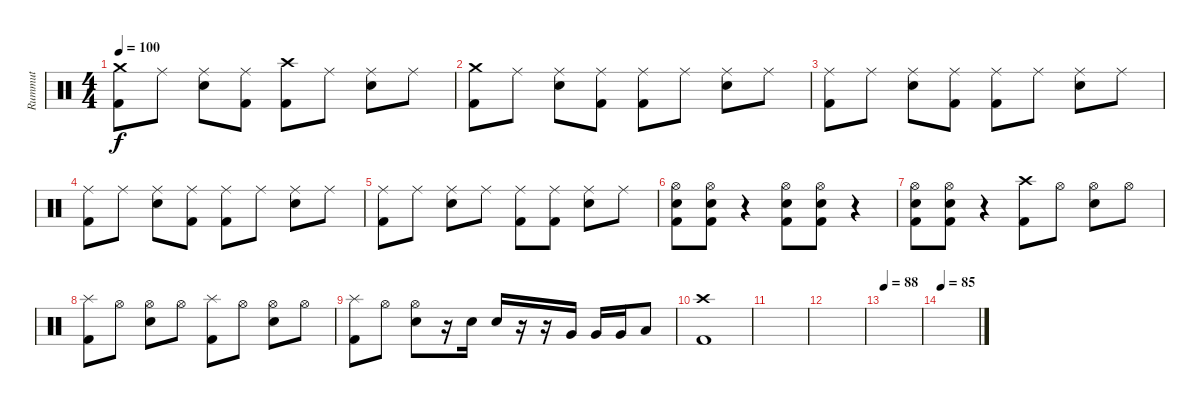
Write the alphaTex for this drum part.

\track ("Rummut" "Rummut") {instrument percussion}
\staff {score}
\articulation defaults
\ts (4 4)
\tempo 100
\clef neutral
\ks c
("Crash medium (hit)" "Kick (hit) 2").8{dy f} "Ride (middle)".8 ("Ride (middle)" "Snare (hit) 2").8 ("Ride (middle)" "Kick (hit) 2").8 ("Crash high (hit)" "Kick (hit) 2").8 "Ride (middle)".8 ("Ride (middle)" "Snare (hit) 2").8 "Ride (middle)".8 |
("Crash medium (hit)" "Kick (hit) 2").8 "Ride (middle)".8 ("Ride (middle)" "Snare (hit) 2").8 ("Ride (middle)" "Kick (hit) 2").8 ("Ride (middle)" "Kick (hit) 2").8 "Ride (middle)".8 ("Ride (middle)" "Snare (hit) 2").8 "Ride (middle)".8 |
("Ride (middle)" "Kick (hit) 2").8 "Ride (middle)".8 ("Ride (middle)" "Snare (hit) 2").8 ("Ride (middle)" "Kick (hit) 2").8 ("Ride (middle)" "Kick (hit) 2").8 "Ride (middle)".8 ("Ride (middle)" "Snare (hit) 2").8 "Ride (middle)".8 |
("Ride (middle)" "Kick (hit) 2").8 "Ride (middle)".8 ("Ride (middle)" "Snare (hit) 2").8 ("Ride (middle)" "Kick (hit) 2").8 ("Ride (middle)" "Kick (hit) 2").8 "Ride (middle)".8 ("Ride (middle)" "Snare (hit) 2").8 "Ride (middle)".8 |
("Ride (middle)" "Kick (hit) 2").8 "Ride (middle)".8 ("Ride (middle)" "Snare (hit) 2").8 "Ride (middle)".8 ("Ride (middle)" "Kick (hit) 2").8 ("Ride (middle)" "Kick (hit) 2").8 ("Ride (middle)" "Snare (hit) 2").8 "Ride (middle)".8 |
("Hi-Hat (open)" "Snare (hit) 2" "Kick (hit) 2").8 ("Hi-Hat (open)" "Snare (hit) 2" "Kick (hit) 2").8 r.4 ("Hi-Hat (open)" "Snare (hit) 2" "Kick (hit) 2").8 ("Hi-Hat (open)" "Snare (hit) 2" "Kick (hit) 2").8 r.4 |
("Hi-Hat (open)" "Snare (hit) 2" "Kick (hit) 2").8 ("Hi-Hat (open)" "Snare (hit) 2" "Kick (hit) 2").8 r.4 ("Crash high (hit)" "Kick (hit) 2").8 "Hi-Hat (open)".8 ("Hi-Hat (open)" "Snare (hit) 2").8 "Hi-Hat (open)".8 |
("Splash (hit)" "Kick (hit) 2").8 "Hi-Hat (open)".8 ("Hi-Hat (open)" "Snare (hit) 2").8 "Hi-Hat (open)".8 ("Splash (hit)" "Kick (hit) 2").8 "Hi-Hat (open)".8 ("Hi-Hat (open)" "Snare (hit) 2").8 "Hi-Hat (open)".8 |
("Splash (hit)" "Kick (hit) 2").8 "Hi-Hat (open)".8 ("Hi-Hat (open)" "Snare (hit) 2").8 r.16 "Snare (hit) 2".16 "Snare (hit) 2".16 r.16 r.16 "Very Low Tom (hit)".16 "Very Low Tom (hit)".16 "Very Low Tom (hit)".16 "Low Floor Tom (hit)".8 |
("Crash high (hit)" "Kick (hit) 2").1 |
|
|
\tempo 88
|
\tempo 85
